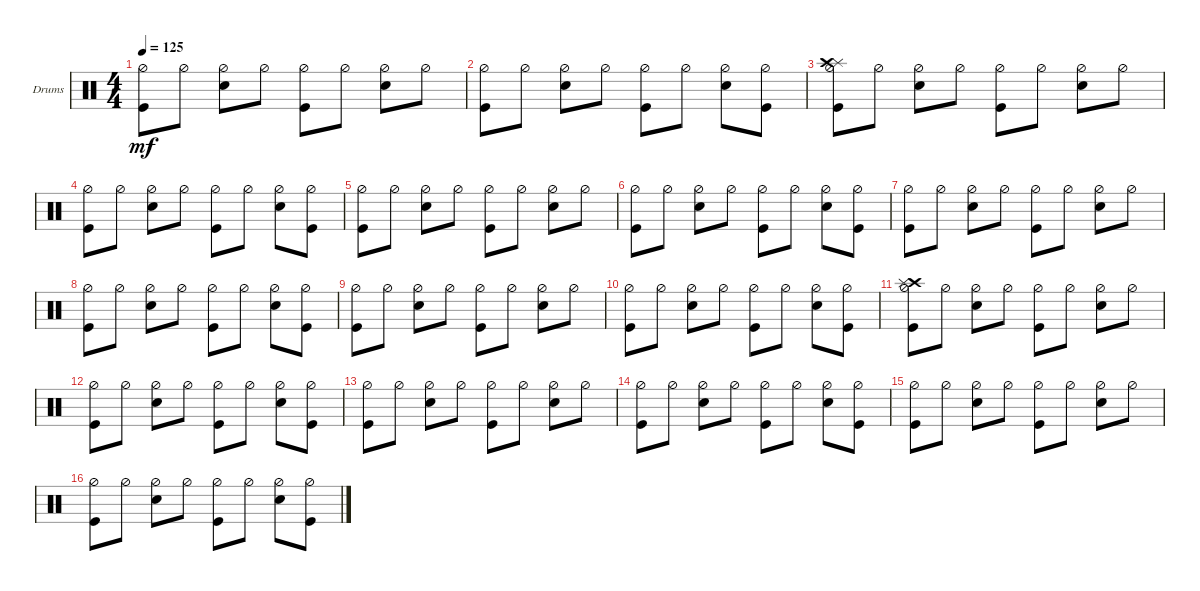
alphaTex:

\defaultSystemsLayout 4
\bracketExtendMode groupsimilarinstruments
\firstSystemTrackNameOrientation horizontal
\otherSystemsTrackNameOrientation horizontal
\track ("Drumkit" "Drums") {instrument percussion}
\staff {score}
\articulation defaults
\ts (4 4)
\tempo 125
\clef neutral
\ks c
("Kick (hit)" "Hi-Hat (half)").8{dy mf} "Hi-Hat (half)".8 ("Hi-Hat (half)" "Snare (hit) 2").8 "Hi-Hat (half)".8 ("Kick (hit)" "Hi-Hat (half)").8 "Hi-Hat (half)".8 ("Hi-Hat (half)" "Snare (hit) 2").8 "Hi-Hat (half)".8 |
("Kick (hit)" "Hi-Hat (half)").8 "Hi-Hat (half)".8 ("Hi-Hat (half)" "Snare (hit) 2").8 "Hi-Hat (half)".8 ("Kick (hit)" "Hi-Hat (half)").8 "Hi-Hat (half)".8 ("Hi-Hat (half)" "Snare (hit) 2").8 ("Hi-Hat (half)" "Kick (hit)").8 |
("Kick (hit)" "Hi-Hat (half)" "Splash (hit)" "Crash high (hit)").8 "Hi-Hat (half)".8 ("Hi-Hat (half)" "Snare (hit) 2").8 "Hi-Hat (half)".8 ("Kick (hit)" "Hi-Hat (half)").8 "Hi-Hat (half)".8 ("Hi-Hat (half)" "Snare (hit) 2").8 "Hi-Hat (half)".8 |
("Kick (hit)" "Hi-Hat (half)").8 "Hi-Hat (half)".8 ("Hi-Hat (half)" "Snare (hit) 2").8 "Hi-Hat (half)".8 ("Kick (hit)" "Hi-Hat (half)").8 "Hi-Hat (half)".8 ("Hi-Hat (half)" "Snare (hit) 2").8 ("Hi-Hat (half)" "Kick (hit)").8 |
("Kick (hit)" "Hi-Hat (half)").8 "Hi-Hat (half)".8 ("Hi-Hat (half)" "Snare (hit) 2").8 "Hi-Hat (half)".8 ("Kick (hit)" "Hi-Hat (half)").8 "Hi-Hat (half)".8 ("Hi-Hat (half)" "Snare (hit) 2").8 "Hi-Hat (half)".8 |
("Kick (hit)" "Hi-Hat (half)").8 "Hi-Hat (half)".8 ("Hi-Hat (half)" "Snare (hit) 2").8 "Hi-Hat (half)".8 ("Kick (hit)" "Hi-Hat (half)").8 "Hi-Hat (half)".8 ("Hi-Hat (half)" "Snare (hit) 2").8 ("Hi-Hat (half)" "Kick (hit)").8 |
("Kick (hit)" "Hi-Hat (half)").8 "Hi-Hat (half)".8 ("Hi-Hat (half)" "Snare (hit) 2").8 "Hi-Hat (half)".8 ("Kick (hit)" "Hi-Hat (half)").8 "Hi-Hat (half)".8 ("Hi-Hat (half)" "Snare (hit) 2").8 "Hi-Hat (half)".8 |
("Kick (hit)" "Hi-Hat (half)").8 "Hi-Hat (half)".8 ("Hi-Hat (half)" "Snare (hit) 2").8 "Hi-Hat (half)".8 ("Kick (hit)" "Hi-Hat (half)").8 "Hi-Hat (half)".8 ("Hi-Hat (half)" "Snare (hit) 2").8 ("Hi-Hat (half)" "Kick (hit)").8 |
("Kick (hit)" "Hi-Hat (half)").8 "Hi-Hat (half)".8 ("Hi-Hat (half)" "Snare (hit) 2").8 "Hi-Hat (half)".8 ("Kick (hit)" "Hi-Hat (half)").8 "Hi-Hat (half)".8 ("Hi-Hat (half)" "Snare (hit) 2").8 "Hi-Hat (half)".8 |
("Kick (hit)" "Hi-Hat (half)").8 "Hi-Hat (half)".8 ("Hi-Hat (half)" "Snare (hit) 2").8 "Hi-Hat (half)".8 ("Kick (hit)" "Hi-Hat (half)").8 "Hi-Hat (half)".8 ("Hi-Hat (half)" "Snare (hit) 2").8 ("Hi-Hat (half)" "Kick (hit)").8 |
("Kick (hit)" "Hi-Hat (half)" "Crash high (hit)" "Splash (hit)").8 "Hi-Hat (half)".8 ("Hi-Hat (half)" "Snare (hit) 2").8 "Hi-Hat (half)".8 ("Kick (hit)" "Hi-Hat (half)").8 "Hi-Hat (half)".8 ("Hi-Hat (half)" "Snare (hit) 2").8 "Hi-Hat (half)".8 |
("Kick (hit)" "Hi-Hat (half)").8 "Hi-Hat (half)".8 ("Hi-Hat (half)" "Snare (hit) 2").8 "Hi-Hat (half)".8 ("Kick (hit)" "Hi-Hat (half)").8 "Hi-Hat (half)".8 ("Hi-Hat (half)" "Snare (hit) 2").8 ("Hi-Hat (half)" "Kick (hit)").8 |
("Kick (hit)" "Hi-Hat (half)").8 "Hi-Hat (half)".8 ("Hi-Hat (half)" "Snare (hit) 2").8 "Hi-Hat (half)".8 ("Kick (hit)" "Hi-Hat (half)").8 "Hi-Hat (half)".8 ("Hi-Hat (half)" "Snare (hit) 2").8 "Hi-Hat (half)".8 |
("Kick (hit)" "Hi-Hat (half)").8 "Hi-Hat (half)".8 ("Hi-Hat (half)" "Snare (hit) 2").8 "Hi-Hat (half)".8 ("Kick (hit)" "Hi-Hat (half)").8 "Hi-Hat (half)".8 ("Hi-Hat (half)" "Snare (hit) 2").8 ("Hi-Hat (half)" "Kick (hit)").8 |
("Kick (hit)" "Hi-Hat (half)").8 "Hi-Hat (half)".8 ("Hi-Hat (half)" "Snare (hit) 2").8 "Hi-Hat (half)".8 ("Kick (hit)" "Hi-Hat (half)").8 "Hi-Hat (half)".8 ("Hi-Hat (half)" "Snare (hit) 2").8 "Hi-Hat (half)".8 |
("Kick (hit)" "Hi-Hat (half)").8 "Hi-Hat (half)".8 ("Hi-Hat (half)" "Snare (hit) 2").8 "Hi-Hat (half)".8 ("Kick (hit)" "Hi-Hat (half)").8 "Hi-Hat (half)".8 ("Hi-Hat (half)" "Snare (hit) 2").8 ("Hi-Hat (half)" "Kick (hit)").8
